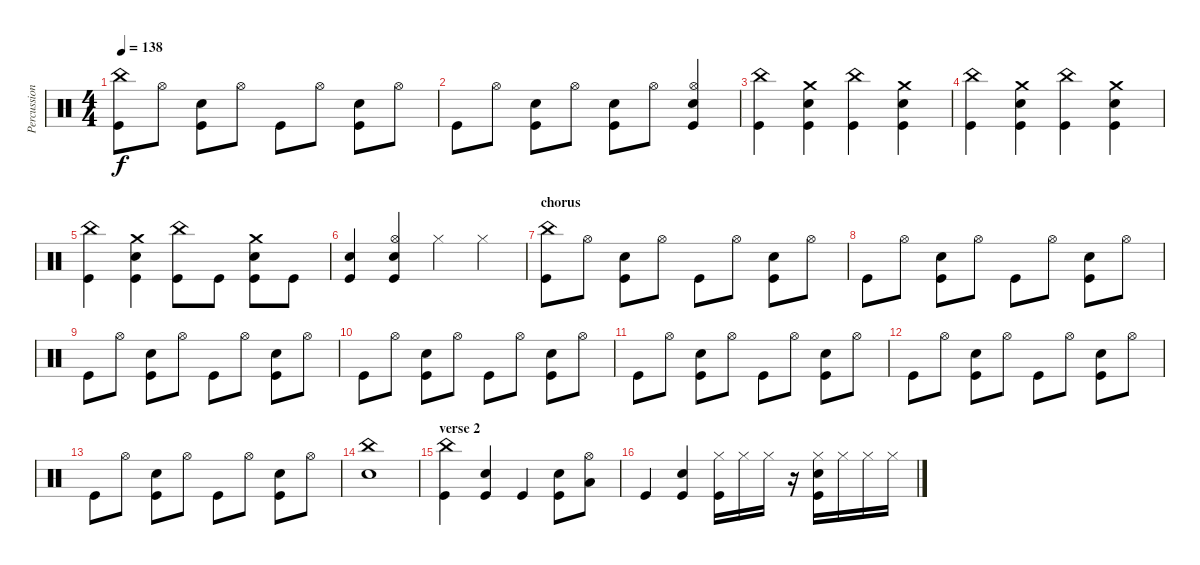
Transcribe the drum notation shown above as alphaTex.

\track ("Percussion" "Percussion") {instrument percussion}
\staff {score}
\articulation defaults
\ts (4 4)
\tempo 138
\clef neutral
\ks c
("China (hit)" "Kick (hit)").8{dy f} "Hi-Hat (open)".8 ("Snare (hit) 2" "Kick (hit)").8 "Hi-Hat (open)".8 "Kick (hit)".8 "Hi-Hat (open)".8 ("Snare (hit) 2" "Kick (hit)").8 "Hi-Hat (open)".8 |
"Kick (hit)".8 "Hi-Hat (open)".8 ("Snare (hit) 2" "Kick (hit)").8 "Hi-Hat (open)".8 ("Snare (hit) 2" "Kick (hit)").8 "Hi-Hat (open)".8 ("Hi-Hat (open)" "Snare (hit) 2" "Kick (hit)").4 |
("China (hit)" "Kick (hit)").4 ("Crash medium (hit)" "Snare (hit) 2" "Kick (hit)").4 ("China (hit)" "Kick (hit)").4 ("Crash medium (hit)" "Snare (hit) 2" "Kick (hit)").4 |
("China (hit)" "Kick (hit)").4 ("Crash medium (hit)" "Snare (hit) 2" "Kick (hit)").4 ("China (hit)" "Kick (hit)").4 ("Crash medium (hit)" "Snare (hit) 2" "Kick (hit)").4 |
("China (hit)" "Kick (hit)").4 ("Crash medium (hit)" "Snare (hit) 2" "Kick (hit)").4 ("China (hit)" "Kick (hit)").8 "Kick (hit)".8 ("Crash medium (hit)" "Snare (hit) 2" "Kick (hit)").8 "Kick (hit)".8 |
("Snare (hit) 2" "Kick (hit)").4 ("Hi-Hat (open)" "Snare (hit) 2" "Kick (hit)").4 "Hi-Hat (closed)".4 "Hi-Hat (closed)".4 |
\section ("" "chorus")
("China (hit)" "Kick (hit)").8 "Hi-Hat (open)".8 ("Snare (hit) 2" "Kick (hit)").8 "Hi-Hat (open)".8 "Kick (hit)".8 "Hi-Hat (open)".8 ("Snare (hit) 2" "Kick (hit)").8 "Hi-Hat (open)".8 |
"Kick (hit)".8 "Hi-Hat (open)".8 ("Snare (hit) 2" "Kick (hit)").8 "Hi-Hat (open)".8 "Kick (hit)".8 "Hi-Hat (open)".8 ("Snare (hit) 2" "Kick (hit)").8 "Hi-Hat (open)".8 |
"Kick (hit)".8 "Hi-Hat (open)".8 ("Snare (hit) 2" "Kick (hit)").8 "Hi-Hat (open)".8 "Kick (hit)".8 "Hi-Hat (open)".8 ("Snare (hit) 2" "Kick (hit)").8 "Hi-Hat (open)".8 |
"Kick (hit)".8 "Hi-Hat (open)".8 ("Snare (hit) 2" "Kick (hit)").8 "Hi-Hat (open)".8 "Kick (hit)".8 "Hi-Hat (open)".8 ("Snare (hit) 2" "Kick (hit)").8 "Hi-Hat (open)".8 |
"Kick (hit)".8 "Hi-Hat (open)".8 ("Snare (hit) 2" "Kick (hit)").8 "Hi-Hat (open)".8 "Kick (hit)".8 "Hi-Hat (open)".8 ("Snare (hit) 2" "Kick (hit)").8 "Hi-Hat (open)".8 |
"Kick (hit)".8 "Hi-Hat (open)".8 ("Snare (hit) 2" "Kick (hit)").8 "Hi-Hat (open)".8 "Kick (hit)".8 "Hi-Hat (open)".8 ("Snare (hit) 2" "Kick (hit)").8 "Hi-Hat (open)".8 |
"Kick (hit)".8 "Hi-Hat (open)".8 ("Snare (hit) 2" "Kick (hit)").8 "Hi-Hat (open)".8 "Kick (hit)".8 "Hi-Hat (open)".8 ("Snare (hit) 2" "Kick (hit)").8 "Hi-Hat (open)".8 |
("China (hit)" "Snare (hit) 2").1 |
\section ("" "verse 2")
("China (hit)" "Kick (hit)").4 ("Snare (hit) 2" "Kick (hit)").4 "Kick (hit)".4 ("Snare (hit) 2" "Kick (hit)").8 ("Hi-Hat (open)" "Low Tom (hit)").8 |
"Kick (hit)".4 ("Snare (hit) 2" "Kick (hit)").4 ("Hi-Hat (closed)" "Kick (hit)").16 "Hi-Hat (closed)".16 "Hi-Hat (closed)".16 r.16 ("Hi-Hat (closed)" "Snare (hit) 2" "Kick (hit)").16 "Hi-Hat (closed)".16 "Hi-Hat (closed)".16 "Hi-Hat (closed)".16
